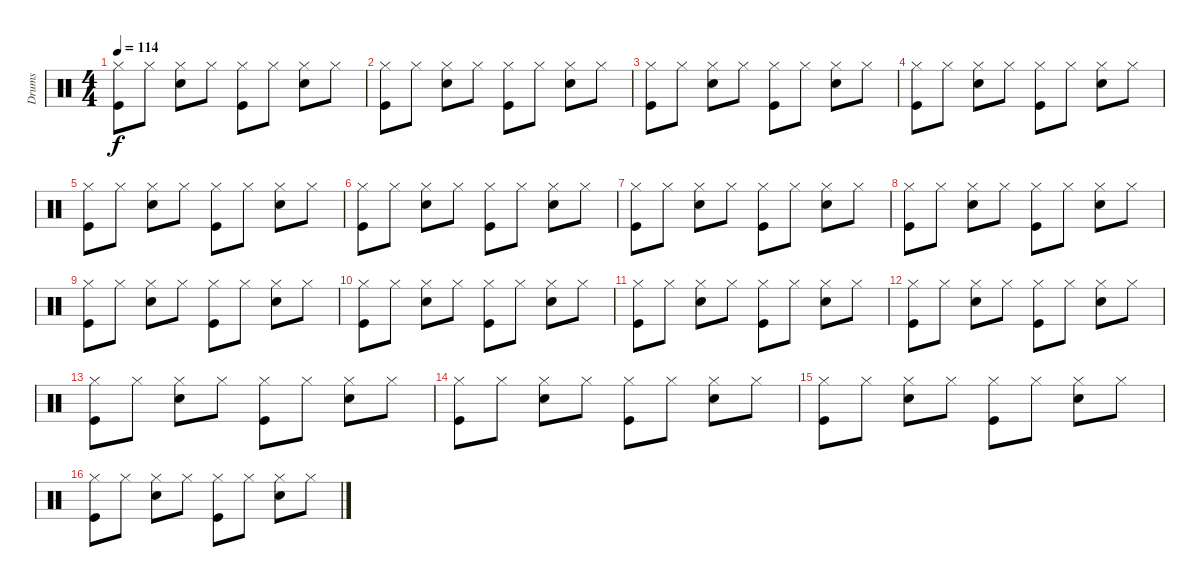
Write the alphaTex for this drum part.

\track ("Drums" "Drums") {instrument percussion}
\staff {score}
\articulation defaults
\ts (4 4)
\tempo 114
\clef neutral
\ks c
("Hi-Hat (closed)" "Kick (hit)").8{dy f} "Hi-Hat (closed)".8 ("Hi-Hat (closed)" "Snare (hit) 2").8 "Hi-Hat (closed)".8 ("Hi-Hat (closed)" "Kick (hit)").8 "Hi-Hat (closed)".8 ("Hi-Hat (closed)" "Snare (hit) 2").8 "Hi-Hat (closed)".8 |
("Hi-Hat (closed)" "Kick (hit)").8 "Hi-Hat (closed)".8 ("Hi-Hat (closed)" "Snare (hit) 2").8 "Hi-Hat (closed)".8 ("Hi-Hat (closed)" "Kick (hit)").8 "Hi-Hat (closed)".8 ("Hi-Hat (closed)" "Snare (hit) 2").8 "Hi-Hat (closed)".8 |
("Hi-Hat (closed)" "Kick (hit)").8 "Hi-Hat (closed)".8 ("Hi-Hat (closed)" "Snare (hit) 2").8 "Hi-Hat (closed)".8 ("Hi-Hat (closed)" "Kick (hit)").8 "Hi-Hat (closed)".8 ("Hi-Hat (closed)" "Snare (hit) 2").8 "Hi-Hat (closed)".8 |
("Hi-Hat (closed)" "Kick (hit)").8 "Hi-Hat (closed)".8 ("Hi-Hat (closed)" "Snare (hit) 2").8 "Hi-Hat (closed)".8 ("Hi-Hat (closed)" "Kick (hit)").8 "Hi-Hat (closed)".8 ("Hi-Hat (closed)" "Snare (hit) 2").8 "Hi-Hat (closed)".8 |
("Hi-Hat (closed)" "Kick (hit)").8 "Hi-Hat (closed)".8 ("Hi-Hat (closed)" "Snare (hit) 2").8 "Hi-Hat (closed)".8 ("Hi-Hat (closed)" "Kick (hit)").8 "Hi-Hat (closed)".8 ("Hi-Hat (closed)" "Snare (hit) 2").8 "Hi-Hat (closed)".8 |
("Hi-Hat (closed)" "Kick (hit)").8 "Hi-Hat (closed)".8 ("Hi-Hat (closed)" "Snare (hit) 2").8 "Hi-Hat (closed)".8 ("Hi-Hat (closed)" "Kick (hit)").8 "Hi-Hat (closed)".8 ("Hi-Hat (closed)" "Snare (hit) 2").8 "Hi-Hat (closed)".8 |
("Hi-Hat (closed)" "Kick (hit)").8 "Hi-Hat (closed)".8 ("Hi-Hat (closed)" "Snare (hit) 2").8 "Hi-Hat (closed)".8 ("Hi-Hat (closed)" "Kick (hit)").8 "Hi-Hat (closed)".8 ("Hi-Hat (closed)" "Snare (hit) 2").8 "Hi-Hat (closed)".8 |
("Hi-Hat (closed)" "Kick (hit)").8 "Hi-Hat (closed)".8 ("Hi-Hat (closed)" "Snare (hit) 2").8 "Hi-Hat (closed)".8 ("Hi-Hat (closed)" "Kick (hit)").8 "Hi-Hat (closed)".8 ("Hi-Hat (closed)" "Snare (hit) 2").8 "Hi-Hat (closed)".8 |
("Hi-Hat (closed)" "Kick (hit)").8 "Hi-Hat (closed)".8 ("Hi-Hat (closed)" "Snare (hit) 2").8 "Hi-Hat (closed)".8 ("Hi-Hat (closed)" "Kick (hit)").8 "Hi-Hat (closed)".8 ("Hi-Hat (closed)" "Snare (hit) 2").8 "Hi-Hat (closed)".8 |
("Hi-Hat (closed)" "Kick (hit)").8 "Hi-Hat (closed)".8 ("Hi-Hat (closed)" "Snare (hit) 2").8 "Hi-Hat (closed)".8 ("Hi-Hat (closed)" "Kick (hit)").8 "Hi-Hat (closed)".8 ("Hi-Hat (closed)" "Snare (hit) 2").8 "Hi-Hat (closed)".8 |
("Hi-Hat (closed)" "Kick (hit)").8 "Hi-Hat (closed)".8 ("Hi-Hat (closed)" "Snare (hit) 2").8 "Hi-Hat (closed)".8 ("Hi-Hat (closed)" "Kick (hit)").8 "Hi-Hat (closed)".8 ("Hi-Hat (closed)" "Snare (hit) 2").8 "Hi-Hat (closed)".8 |
("Hi-Hat (closed)" "Kick (hit)").8 "Hi-Hat (closed)".8 ("Hi-Hat (closed)" "Snare (hit) 2").8 "Hi-Hat (closed)".8 ("Hi-Hat (closed)" "Kick (hit)").8 "Hi-Hat (closed)".8 ("Hi-Hat (closed)" "Snare (hit) 2").8 "Hi-Hat (closed)".8 |
("Hi-Hat (closed)" "Kick (hit)").8 "Hi-Hat (closed)".8 ("Hi-Hat (closed)" "Snare (hit) 2").8 "Hi-Hat (closed)".8 ("Hi-Hat (closed)" "Kick (hit)").8 "Hi-Hat (closed)".8 ("Hi-Hat (closed)" "Snare (hit) 2").8 "Hi-Hat (closed)".8 |
("Hi-Hat (closed)" "Kick (hit)").8 "Hi-Hat (closed)".8 ("Hi-Hat (closed)" "Snare (hit) 2").8 "Hi-Hat (closed)".8 ("Hi-Hat (closed)" "Kick (hit)").8 "Hi-Hat (closed)".8 ("Hi-Hat (closed)" "Snare (hit) 2").8 "Hi-Hat (closed)".8 |
("Hi-Hat (closed)" "Kick (hit)").8 "Hi-Hat (closed)".8 ("Hi-Hat (closed)" "Snare (hit) 2").8 "Hi-Hat (closed)".8 ("Hi-Hat (closed)" "Kick (hit)").8 "Hi-Hat (closed)".8 ("Hi-Hat (closed)" "Snare (hit) 2").8 "Hi-Hat (closed)".8 |
("Hi-Hat (closed)" "Kick (hit)").8 "Hi-Hat (closed)".8 ("Hi-Hat (closed)" "Snare (hit) 2").8 "Hi-Hat (closed)".8 ("Hi-Hat (closed)" "Kick (hit)").8 "Hi-Hat (closed)".8 ("Hi-Hat (closed)" "Snare (hit) 2").8 "Hi-Hat (closed)".8
